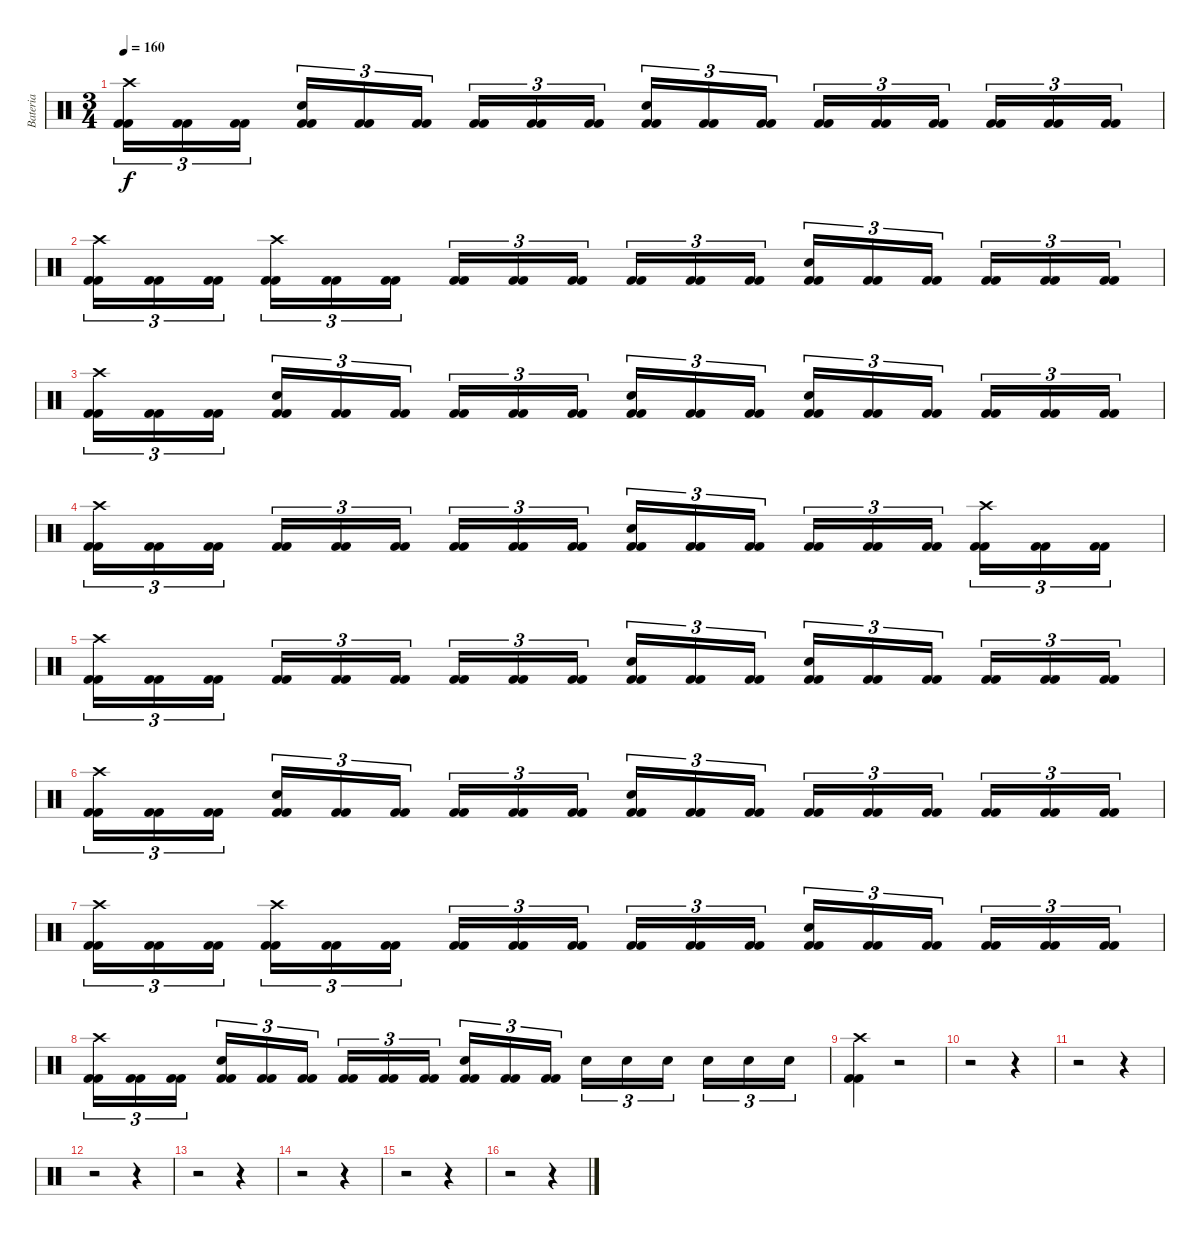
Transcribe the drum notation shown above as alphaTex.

\track ("Bateria" "Bateria") {instrument percussion}
\staff {score}
\articulation defaults
\ts (3 4)
\tempo 160
\clef neutral
\ks c
("Kick (hit) 2" "Kick (hit) 2" "Crash high (hit)").16{tu (3 2) dy f} ("Kick (hit) 2" "Kick (hit) 2").16{tu (3 2)} ("Kick (hit) 2" "Kick (hit) 2").16{tu (3 2)} ("Kick (hit) 2" "Kick (hit) 2" "Snare (hit) 2").16{tu (3 2)} ("Kick (hit) 2" "Kick (hit) 2").16{tu (3 2)} ("Kick (hit) 2" "Kick (hit) 2").16{tu (3 2)} ("Kick (hit) 2" "Kick (hit) 2").16{tu (3 2)} ("Kick (hit) 2" "Kick (hit) 2").16{tu (3 2)} ("Kick (hit) 2" "Kick (hit) 2").16{tu (3 2)} ("Kick (hit) 2" "Kick (hit) 2" "Snare (hit) 2").16{tu (3 2)} ("Kick (hit) 2" "Kick (hit) 2").16{tu (3 2)} ("Kick (hit) 2" "Kick (hit) 2").16{tu (3 2)} ("Kick (hit) 2" "Kick (hit) 2").16{tu (3 2)} ("Kick (hit) 2" "Kick (hit) 2").16{tu (3 2)} ("Kick (hit) 2" "Kick (hit) 2").16{tu (3 2)} ("Kick (hit) 2" "Kick (hit) 2").16{tu (3 2)} ("Kick (hit) 2" "Kick (hit) 2").16{tu (3 2)} ("Kick (hit) 2" "Kick (hit) 2").16{tu (3 2)} |
("Kick (hit) 2" "Kick (hit) 2" "Crash high (hit)").16{tu (3 2)} ("Kick (hit) 2" "Kick (hit) 2").16{tu (3 2)} ("Kick (hit) 2" "Kick (hit) 2").16{tu (3 2)} ("Kick (hit) 2" "Kick (hit) 2" "Crash high (hit)").16{tu (3 2)} ("Kick (hit) 2" "Kick (hit) 2").16{tu (3 2)} ("Kick (hit) 2" "Kick (hit) 2").16{tu (3 2)} ("Kick (hit) 2" "Kick (hit) 2").16{tu (3 2)} ("Kick (hit) 2" "Kick (hit) 2").16{tu (3 2)} ("Kick (hit) 2" "Kick (hit) 2").16{tu (3 2)} ("Kick (hit) 2" "Kick (hit) 2").16{tu (3 2)} ("Kick (hit) 2" "Kick (hit) 2").16{tu (3 2)} ("Kick (hit) 2" "Kick (hit) 2").16{tu (3 2)} ("Kick (hit) 2" "Kick (hit) 2" "Snare (hit) 2").16{tu (3 2)} ("Kick (hit) 2" "Kick (hit) 2").16{tu (3 2)} ("Kick (hit) 2" "Kick (hit) 2").16{tu (3 2)} ("Kick (hit) 2" "Kick (hit) 2").16{tu (3 2)} ("Kick (hit) 2" "Kick (hit) 2").16{tu (3 2)} ("Kick (hit) 2" "Kick (hit) 2").16{tu (3 2)} |
("Kick (hit) 2" "Kick (hit) 2" "Crash high (hit)").16{tu (3 2)} ("Kick (hit) 2" "Kick (hit) 2").16{tu (3 2)} ("Kick (hit) 2" "Kick (hit) 2").16{tu (3 2)} ("Kick (hit) 2" "Kick (hit) 2" "Snare (hit) 2").16{tu (3 2)} ("Kick (hit) 2" "Kick (hit) 2").16{tu (3 2)} ("Kick (hit) 2" "Kick (hit) 2").16{tu (3 2)} ("Kick (hit) 2" "Kick (hit) 2").16{tu (3 2)} ("Kick (hit) 2" "Kick (hit) 2").16{tu (3 2)} ("Kick (hit) 2" "Kick (hit) 2").16{tu (3 2)} ("Kick (hit) 2" "Kick (hit) 2" "Snare (hit) 2").16{tu (3 2)} ("Kick (hit) 2" "Kick (hit) 2").16{tu (3 2)} ("Kick (hit) 2" "Kick (hit) 2").16{tu (3 2)} ("Kick (hit) 2" "Kick (hit) 2" "Snare (hit) 2").16{tu (3 2)} ("Kick (hit) 2" "Kick (hit) 2").16{tu (3 2)} ("Kick (hit) 2" "Kick (hit) 2").16{tu (3 2)} ("Kick (hit) 2" "Kick (hit) 2").16{tu (3 2)} ("Kick (hit) 2" "Kick (hit) 2").16{tu (3 2)} ("Kick (hit) 2" "Kick (hit) 2").16{tu (3 2)} |
("Kick (hit) 2" "Kick (hit) 2" "Crash high (hit)").16{tu (3 2)} ("Kick (hit) 2" "Kick (hit) 2").16{tu (3 2)} ("Kick (hit) 2" "Kick (hit) 2").16{tu (3 2)} ("Kick (hit) 2" "Kick (hit) 2").16{tu (3 2)} ("Kick (hit) 2" "Kick (hit) 2").16{tu (3 2)} ("Kick (hit) 2" "Kick (hit) 2").16{tu (3 2)} ("Kick (hit) 2" "Kick (hit) 2").16{tu (3 2)} ("Kick (hit) 2" "Kick (hit) 2").16{tu (3 2)} ("Kick (hit) 2" "Kick (hit) 2").16{tu (3 2)} ("Kick (hit) 2" "Kick (hit) 2" "Snare (hit) 2").16{tu (3 2)} ("Kick (hit) 2" "Kick (hit) 2").16{tu (3 2)} ("Kick (hit) 2" "Kick (hit) 2").16{tu (3 2)} ("Kick (hit) 2" "Kick (hit) 2").16{tu (3 2)} ("Kick (hit) 2" "Kick (hit) 2").16{tu (3 2)} ("Kick (hit) 2" "Kick (hit) 2").16{tu (3 2)} ("Kick (hit) 2" "Kick (hit) 2" "Crash high (hit)").16{tu (3 2)} ("Kick (hit) 2" "Kick (hit) 2").16{tu (3 2)} ("Kick (hit) 2" "Kick (hit) 2").16{tu (3 2)} |
("Kick (hit) 2" "Kick (hit) 2" "Crash high (hit)").16{tu (3 2)} ("Kick (hit) 2" "Kick (hit) 2").16{tu (3 2)} ("Kick (hit) 2" "Kick (hit) 2").16{tu (3 2)} ("Kick (hit) 2" "Kick (hit) 2").16{tu (3 2)} ("Kick (hit) 2" "Kick (hit) 2").16{tu (3 2)} ("Kick (hit) 2" "Kick (hit) 2").16{tu (3 2)} ("Kick (hit) 2" "Kick (hit) 2").16{tu (3 2)} ("Kick (hit) 2" "Kick (hit) 2").16{tu (3 2)} ("Kick (hit) 2" "Kick (hit) 2").16{tu (3 2)} ("Kick (hit) 2" "Kick (hit) 2" "Snare (hit) 2").16{tu (3 2)} ("Kick (hit) 2" "Kick (hit) 2").16{tu (3 2)} ("Kick (hit) 2" "Kick (hit) 2").16{tu (3 2)} ("Kick (hit) 2" "Kick (hit) 2" "Snare (hit) 2").16{tu (3 2)} ("Kick (hit) 2" "Kick (hit) 2").16{tu (3 2)} ("Kick (hit) 2" "Kick (hit) 2").16{tu (3 2)} ("Kick (hit) 2" "Kick (hit) 2").16{tu (3 2)} ("Kick (hit) 2" "Kick (hit) 2").16{tu (3 2)} ("Kick (hit) 2" "Kick (hit) 2").16{tu (3 2)} |
("Kick (hit) 2" "Kick (hit) 2" "Crash high (hit)").16{tu (3 2)} ("Kick (hit) 2" "Kick (hit) 2").16{tu (3 2)} ("Kick (hit) 2" "Kick (hit) 2").16{tu (3 2)} ("Kick (hit) 2" "Kick (hit) 2" "Snare (hit) 2").16{tu (3 2)} ("Kick (hit) 2" "Kick (hit) 2").16{tu (3 2)} ("Kick (hit) 2" "Kick (hit) 2").16{tu (3 2)} ("Kick (hit) 2" "Kick (hit) 2").16{tu (3 2)} ("Kick (hit) 2" "Kick (hit) 2").16{tu (3 2)} ("Kick (hit) 2" "Kick (hit) 2").16{tu (3 2)} ("Kick (hit) 2" "Kick (hit) 2" "Snare (hit) 2").16{tu (3 2)} ("Kick (hit) 2" "Kick (hit) 2").16{tu (3 2)} ("Kick (hit) 2" "Kick (hit) 2").16{tu (3 2)} ("Kick (hit) 2" "Kick (hit) 2").16{tu (3 2)} ("Kick (hit) 2" "Kick (hit) 2").16{tu (3 2)} ("Kick (hit) 2" "Kick (hit) 2").16{tu (3 2)} ("Kick (hit) 2" "Kick (hit) 2").16{tu (3 2)} ("Kick (hit) 2" "Kick (hit) 2").16{tu (3 2)} ("Kick (hit) 2" "Kick (hit) 2").16{tu (3 2)} |
("Kick (hit) 2" "Kick (hit) 2" "Crash high (hit)").16{tu (3 2)} ("Kick (hit) 2" "Kick (hit) 2").16{tu (3 2)} ("Kick (hit) 2" "Kick (hit) 2").16{tu (3 2)} ("Kick (hit) 2" "Kick (hit) 2" "Crash high (hit)").16{tu (3 2)} ("Kick (hit) 2" "Kick (hit) 2").16{tu (3 2)} ("Kick (hit) 2" "Kick (hit) 2").16{tu (3 2)} ("Kick (hit) 2" "Kick (hit) 2").16{tu (3 2)} ("Kick (hit) 2" "Kick (hit) 2").16{tu (3 2)} ("Kick (hit) 2" "Kick (hit) 2").16{tu (3 2)} ("Kick (hit) 2" "Kick (hit) 2").16{tu (3 2)} ("Kick (hit) 2" "Kick (hit) 2").16{tu (3 2)} ("Kick (hit) 2" "Kick (hit) 2").16{tu (3 2)} ("Kick (hit) 2" "Kick (hit) 2" "Snare (hit) 2").16{tu (3 2)} ("Kick (hit) 2" "Kick (hit) 2").16{tu (3 2)} ("Kick (hit) 2" "Kick (hit) 2").16{tu (3 2)} ("Kick (hit) 2" "Kick (hit) 2").16{tu (3 2)} ("Kick (hit) 2" "Kick (hit) 2").16{tu (3 2)} ("Kick (hit) 2" "Kick (hit) 2").16{tu (3 2)} |
("Kick (hit) 2" "Kick (hit) 2" "Crash high (hit)").16{tu (3 2)} ("Kick (hit) 2" "Kick (hit) 2").16{tu (3 2)} ("Kick (hit) 2" "Kick (hit) 2").16{tu (3 2)} ("Kick (hit) 2" "Kick (hit) 2" "Snare (hit) 2").16{tu (3 2)} ("Kick (hit) 2" "Kick (hit) 2").16{tu (3 2)} ("Kick (hit) 2" "Kick (hit) 2").16{tu (3 2)} ("Kick (hit) 2" "Kick (hit) 2").16{tu (3 2)} ("Kick (hit) 2" "Kick (hit) 2").16{tu (3 2)} ("Kick (hit) 2" "Kick (hit) 2").16{tu (3 2)} ("Kick (hit) 2" "Kick (hit) 2" "Snare (hit) 2").16{tu (3 2)} ("Kick (hit) 2" "Kick (hit) 2").16{tu (3 2)} ("Kick (hit) 2" "Kick (hit) 2").16{tu (3 2)} "Snare (hit) 2".16{tu (3 2)} "Snare (hit) 2".16{tu (3 2)} "Snare (hit) 2".16{tu (3 2)} "Snare (hit) 2".16{tu (3 2)} "Snare (hit) 2".16{tu (3 2)} "Snare (hit) 2".16{tu (3 2)} |
("Kick (hit) 2" "Kick (hit) 2" "Crash high (hit)").4 r.2 |
r.2 r.4 |
r.2 r.4 |
r.2 r.4 |
r.2 r.4 |
r.2 r.4 |
r.2 r.4 |
r.2 r.4
